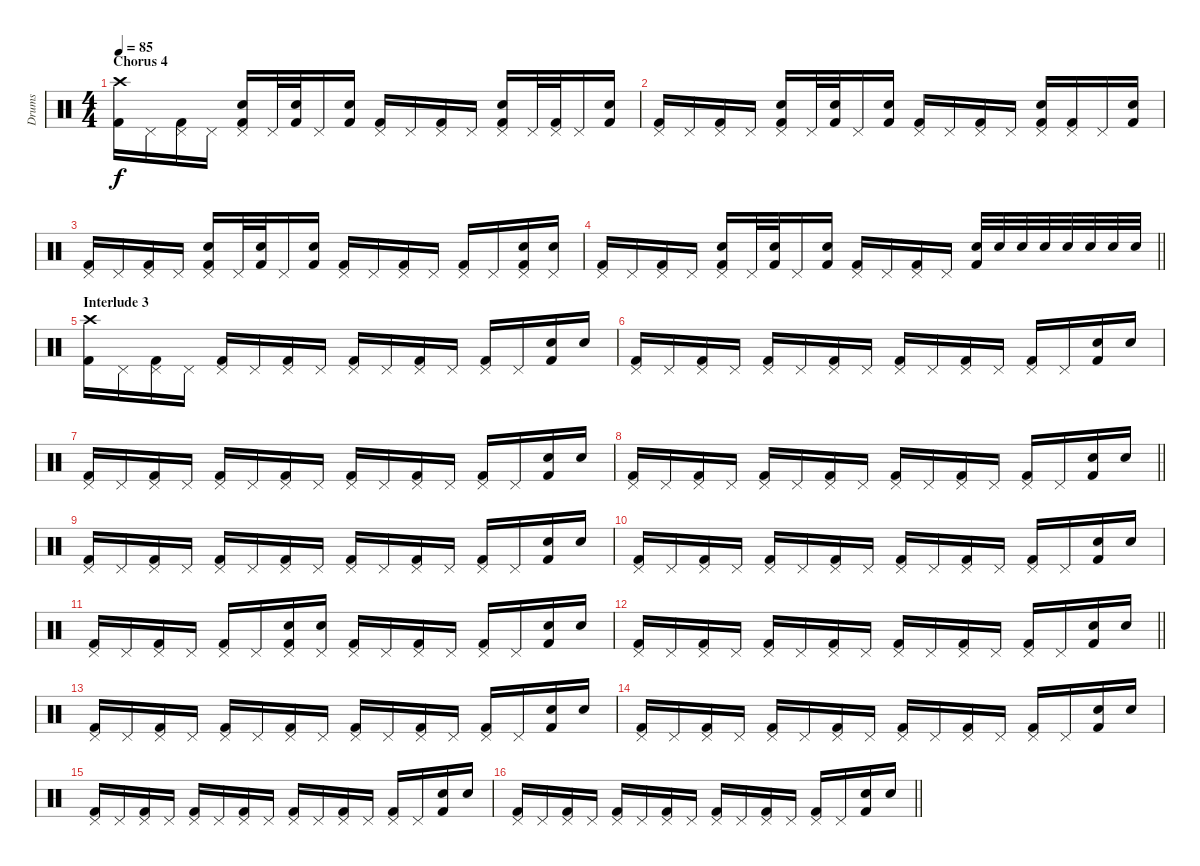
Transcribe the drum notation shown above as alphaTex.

\track ("Drums" "Drums") {instrument percussion}
\staff {score}
\articulation defaults
\ts (4 4)
\section ("" "Chorus 4")
\tempo 85
\clef neutral
\ks c
("Kick (hit) 2" "Crash high (hit)").16{dy f} "Pedal Hi-Hat (hit)".16 ("Kick (hit) 2" "Pedal Hi-Hat (hit)").16 "Pedal Hi-Hat (hit)".16 ("Kick (hit) 2" "Snare (hit) 2" "Pedal Hi-Hat (hit)").16 "Pedal Hi-Hat (hit)".32 ("Kick (hit) 2" "Snare (hit) 2").32 "Pedal Hi-Hat (hit)".16 ("Kick (hit) 2" "Snare (hit) 2").16 ("Kick (hit) 2" "Pedal Hi-Hat (hit)").16 "Pedal Hi-Hat (hit)".16 ("Kick (hit) 2" "Pedal Hi-Hat (hit)").16 "Pedal Hi-Hat (hit)".16 ("Kick (hit) 2" "Snare (hit) 2" "Pedal Hi-Hat (hit)").16 "Pedal Hi-Hat (hit)".32 ("Kick (hit) 2" "Pedal Hi-Hat (hit)").32 "Pedal Hi-Hat (hit)".16 ("Kick (hit) 2" "Snare (hit) 2").16 |
("Kick (hit) 2" "Pedal Hi-Hat (hit)").16 "Pedal Hi-Hat (hit)".16 ("Kick (hit) 2" "Pedal Hi-Hat (hit)").16 "Pedal Hi-Hat (hit)".16 ("Kick (hit) 2" "Snare (hit) 2" "Pedal Hi-Hat (hit)").16 "Pedal Hi-Hat (hit)".32 ("Kick (hit) 2" "Snare (hit) 2").32 "Pedal Hi-Hat (hit)".16 ("Kick (hit) 2" "Snare (hit) 2").16 ("Kick (hit) 2" "Pedal Hi-Hat (hit)").16 "Pedal Hi-Hat (hit)".16 ("Kick (hit) 2" "Pedal Hi-Hat (hit)").16 "Pedal Hi-Hat (hit)".16 ("Kick (hit) 2" "Snare (hit) 2" "Pedal Hi-Hat (hit)").16 ("Kick (hit) 2" "Pedal Hi-Hat (hit)").16 "Pedal Hi-Hat (hit)".16 ("Kick (hit) 2" "Snare (hit) 2").16 |
("Kick (hit) 2" "Pedal Hi-Hat (hit)").16 "Pedal Hi-Hat (hit)".16 ("Kick (hit) 2" "Pedal Hi-Hat (hit)").16 "Pedal Hi-Hat (hit)".16 ("Kick (hit) 2" "Snare (hit) 2" "Pedal Hi-Hat (hit)").16 "Pedal Hi-Hat (hit)".32 ("Kick (hit) 2" "Snare (hit) 2").32 "Pedal Hi-Hat (hit)".16 ("Kick (hit) 2" "Snare (hit) 2").16 ("Kick (hit) 2" "Pedal Hi-Hat (hit)").16 "Pedal Hi-Hat (hit)".16 ("Kick (hit) 2" "Pedal Hi-Hat (hit)").16 "Pedal Hi-Hat (hit)".16 ("Kick (hit) 2" "Pedal Hi-Hat (hit)").16 "Pedal Hi-Hat (hit)".16 ("Kick (hit) 2" "Snare (hit) 2" "Pedal Hi-Hat (hit)").16 ("Snare (hit) 2" "Pedal Hi-Hat (hit)").16 |
\barLineRight lightlight
("Kick (hit) 2" "Pedal Hi-Hat (hit)").16 "Pedal Hi-Hat (hit)".16 ("Kick (hit) 2" "Pedal Hi-Hat (hit)").16 "Pedal Hi-Hat (hit)".16 ("Kick (hit) 2" "Snare (hit) 2" "Pedal Hi-Hat (hit)").16 "Pedal Hi-Hat (hit)".32 ("Kick (hit) 2" "Snare (hit) 2").32 "Pedal Hi-Hat (hit)".16 ("Kick (hit) 2" "Snare (hit) 2").16 ("Kick (hit) 2" "Pedal Hi-Hat (hit)").16 "Pedal Hi-Hat (hit)".16 ("Kick (hit) 2" "Pedal Hi-Hat (hit)").16 "Pedal Hi-Hat (hit)".16 ("Kick (hit) 2" "Snare (hit) 2").32 "Snare (hit) 2".32 "Snare (hit) 2".32 "Snare (hit) 2".32 "Snare (hit) 2".32 "Snare (hit) 2".32 "Snare (hit) 2".32 "Snare (hit) 2".32 |
\section ("" "Interlude 3")
("Kick (hit) 2" "Crash high (hit)").16 "Pedal Hi-Hat (hit)".16 ("Kick (hit) 2" "Pedal Hi-Hat (hit)").16 "Pedal Hi-Hat (hit)".16 ("Kick (hit) 2" "Pedal Hi-Hat (hit)").16 "Pedal Hi-Hat (hit)".16 ("Kick (hit) 2" "Pedal Hi-Hat (hit)").16 "Pedal Hi-Hat (hit)".16 ("Kick (hit) 2" "Pedal Hi-Hat (hit)").16 "Pedal Hi-Hat (hit)".16 ("Kick (hit) 2" "Pedal Hi-Hat (hit)").16 "Pedal Hi-Hat (hit)".16 ("Kick (hit) 2" "Pedal Hi-Hat (hit)").16 "Pedal Hi-Hat (hit)".16 ("Kick (hit) 2" "Snare (hit) 2").16 "Snare (hit) 2".16 |
("Kick (hit) 2" "Pedal Hi-Hat (hit)").16 "Pedal Hi-Hat (hit)".16 ("Kick (hit) 2" "Pedal Hi-Hat (hit)").16 "Pedal Hi-Hat (hit)".16 ("Kick (hit) 2" "Pedal Hi-Hat (hit)").16 "Pedal Hi-Hat (hit)".16 ("Kick (hit) 2" "Pedal Hi-Hat (hit)").16 "Pedal Hi-Hat (hit)".16 ("Kick (hit) 2" "Pedal Hi-Hat (hit)").16 "Pedal Hi-Hat (hit)".16 ("Kick (hit) 2" "Pedal Hi-Hat (hit)").16 "Pedal Hi-Hat (hit)".16 ("Kick (hit) 2" "Pedal Hi-Hat (hit)").16 "Pedal Hi-Hat (hit)".16 ("Kick (hit) 2" "Snare (hit) 2").16 "Snare (hit) 2".16 |
("Kick (hit) 2" "Pedal Hi-Hat (hit)").16 "Pedal Hi-Hat (hit)".16 ("Kick (hit) 2" "Pedal Hi-Hat (hit)").16 "Pedal Hi-Hat (hit)".16 ("Kick (hit) 2" "Pedal Hi-Hat (hit)").16 "Pedal Hi-Hat (hit)".16 ("Kick (hit) 2" "Pedal Hi-Hat (hit)").16 "Pedal Hi-Hat (hit)".16 ("Kick (hit) 2" "Pedal Hi-Hat (hit)").16 "Pedal Hi-Hat (hit)".16 ("Kick (hit) 2" "Pedal Hi-Hat (hit)").16 "Pedal Hi-Hat (hit)".16 ("Kick (hit) 2" "Pedal Hi-Hat (hit)").16 "Pedal Hi-Hat (hit)".16 ("Kick (hit) 2" "Snare (hit) 2").16 "Snare (hit) 2".16 |
\barLineRight lightlight
("Kick (hit) 2" "Pedal Hi-Hat (hit)").16 "Pedal Hi-Hat (hit)".16 ("Kick (hit) 2" "Pedal Hi-Hat (hit)").16 "Pedal Hi-Hat (hit)".16 ("Kick (hit) 2" "Pedal Hi-Hat (hit)").16 "Pedal Hi-Hat (hit)".16 ("Kick (hit) 2" "Pedal Hi-Hat (hit)").16 "Pedal Hi-Hat (hit)".16 ("Kick (hit) 2" "Pedal Hi-Hat (hit)").16 "Pedal Hi-Hat (hit)".16 ("Kick (hit) 2" "Pedal Hi-Hat (hit)").16 "Pedal Hi-Hat (hit)".16 ("Kick (hit) 2" "Pedal Hi-Hat (hit)").16 "Pedal Hi-Hat (hit)".16 ("Kick (hit) 2" "Snare (hit) 2").16 "Snare (hit) 2".16 |
("Kick (hit) 2" "Pedal Hi-Hat (hit)").16 "Pedal Hi-Hat (hit)".16 ("Kick (hit) 2" "Pedal Hi-Hat (hit)").16 "Pedal Hi-Hat (hit)".16 ("Kick (hit) 2" "Pedal Hi-Hat (hit)").16 "Pedal Hi-Hat (hit)".16 ("Kick (hit) 2" "Pedal Hi-Hat (hit)").16 "Pedal Hi-Hat (hit)".16 ("Kick (hit) 2" "Pedal Hi-Hat (hit)").16 "Pedal Hi-Hat (hit)".16 ("Kick (hit) 2" "Pedal Hi-Hat (hit)").16 "Pedal Hi-Hat (hit)".16 ("Kick (hit) 2" "Pedal Hi-Hat (hit)").16 "Pedal Hi-Hat (hit)".16 ("Kick (hit) 2" "Snare (hit) 2").16 "Snare (hit) 2".16 |
("Kick (hit) 2" "Pedal Hi-Hat (hit)").16 "Pedal Hi-Hat (hit)".16 ("Kick (hit) 2" "Pedal Hi-Hat (hit)").16 "Pedal Hi-Hat (hit)".16 ("Kick (hit) 2" "Pedal Hi-Hat (hit)").16 "Pedal Hi-Hat (hit)".16 ("Kick (hit) 2" "Pedal Hi-Hat (hit)").16 "Pedal Hi-Hat (hit)".16 ("Kick (hit) 2" "Pedal Hi-Hat (hit)").16 "Pedal Hi-Hat (hit)".16 ("Kick (hit) 2" "Pedal Hi-Hat (hit)").16 "Pedal Hi-Hat (hit)".16 ("Kick (hit) 2" "Pedal Hi-Hat (hit)").16 "Pedal Hi-Hat (hit)".16 ("Kick (hit) 2" "Snare (hit) 2").16 "Snare (hit) 2".16 |
("Kick (hit) 2" "Pedal Hi-Hat (hit)").16 "Pedal Hi-Hat (hit)".16 ("Kick (hit) 2" "Pedal Hi-Hat (hit)").16 "Pedal Hi-Hat (hit)".16 ("Kick (hit) 2" "Pedal Hi-Hat (hit)").16 "Pedal Hi-Hat (hit)".16 ("Kick (hit) 2" "Snare (hit) 2" "Pedal Hi-Hat (hit)").16 ("Snare (hit) 2" "Pedal Hi-Hat (hit)").16 ("Kick (hit) 2" "Pedal Hi-Hat (hit)").16 "Pedal Hi-Hat (hit)".16 ("Kick (hit) 2" "Pedal Hi-Hat (hit)").16 "Pedal Hi-Hat (hit)".16 ("Kick (hit) 2" "Pedal Hi-Hat (hit)").16 "Pedal Hi-Hat (hit)".16 ("Kick (hit) 2" "Snare (hit) 2").16 "Snare (hit) 2".16 |
\barLineRight lightlight
("Kick (hit) 2" "Pedal Hi-Hat (hit)").16 "Pedal Hi-Hat (hit)".16 ("Kick (hit) 2" "Pedal Hi-Hat (hit)").16 "Pedal Hi-Hat (hit)".16 ("Kick (hit) 2" "Pedal Hi-Hat (hit)").16 "Pedal Hi-Hat (hit)".16 ("Kick (hit) 2" "Pedal Hi-Hat (hit)").16 "Pedal Hi-Hat (hit)".16 ("Kick (hit) 2" "Pedal Hi-Hat (hit)").16 "Pedal Hi-Hat (hit)".16 ("Kick (hit) 2" "Pedal Hi-Hat (hit)").16 "Pedal Hi-Hat (hit)".16 ("Kick (hit) 2" "Pedal Hi-Hat (hit)").16 "Pedal Hi-Hat (hit)".16 ("Kick (hit) 2" "Snare (hit) 2").16 "Snare (hit) 2".16 |
("Kick (hit) 2" "Pedal Hi-Hat (hit)").16 "Pedal Hi-Hat (hit)".16 ("Kick (hit) 2" "Pedal Hi-Hat (hit)").16 "Pedal Hi-Hat (hit)".16 ("Kick (hit) 2" "Pedal Hi-Hat (hit)").16 "Pedal Hi-Hat (hit)".16 ("Kick (hit) 2" "Pedal Hi-Hat (hit)").16 "Pedal Hi-Hat (hit)".16 ("Kick (hit) 2" "Pedal Hi-Hat (hit)").16 "Pedal Hi-Hat (hit)".16 ("Kick (hit) 2" "Pedal Hi-Hat (hit)").16 "Pedal Hi-Hat (hit)".16 ("Kick (hit) 2" "Pedal Hi-Hat (hit)").16 "Pedal Hi-Hat (hit)".16 ("Kick (hit) 2" "Snare (hit) 2").16 "Snare (hit) 2".16 |
("Kick (hit) 2" "Pedal Hi-Hat (hit)").16 "Pedal Hi-Hat (hit)".16 ("Kick (hit) 2" "Pedal Hi-Hat (hit)").16 "Pedal Hi-Hat (hit)".16 ("Kick (hit) 2" "Pedal Hi-Hat (hit)").16 "Pedal Hi-Hat (hit)".16 ("Kick (hit) 2" "Pedal Hi-Hat (hit)").16 "Pedal Hi-Hat (hit)".16 ("Kick (hit) 2" "Pedal Hi-Hat (hit)").16 "Pedal Hi-Hat (hit)".16 ("Kick (hit) 2" "Pedal Hi-Hat (hit)").16 "Pedal Hi-Hat (hit)".16 ("Kick (hit) 2" "Pedal Hi-Hat (hit)").16 "Pedal Hi-Hat (hit)".16 ("Kick (hit) 2" "Snare (hit) 2").16 "Snare (hit) 2".16 |
("Kick (hit) 2" "Pedal Hi-Hat (hit)").16 "Pedal Hi-Hat (hit)".16 ("Kick (hit) 2" "Pedal Hi-Hat (hit)").16 "Pedal Hi-Hat (hit)".16 ("Kick (hit) 2" "Pedal Hi-Hat (hit)").16 "Pedal Hi-Hat (hit)".16 ("Kick (hit) 2" "Pedal Hi-Hat (hit)").16 "Pedal Hi-Hat (hit)".16 ("Kick (hit) 2" "Pedal Hi-Hat (hit)").16 "Pedal Hi-Hat (hit)".16 ("Kick (hit) 2" "Pedal Hi-Hat (hit)").16 "Pedal Hi-Hat (hit)".16 ("Kick (hit) 2" "Pedal Hi-Hat (hit)").16 "Pedal Hi-Hat (hit)".16 ("Kick (hit) 2" "Snare (hit) 2").16 "Snare (hit) 2".16 |
\barLineRight lightlight
("Kick (hit) 2" "Pedal Hi-Hat (hit)").16 "Pedal Hi-Hat (hit)".16 ("Kick (hit) 2" "Pedal Hi-Hat (hit)").16 "Pedal Hi-Hat (hit)".16 ("Kick (hit) 2" "Pedal Hi-Hat (hit)").16 "Pedal Hi-Hat (hit)".16 ("Kick (hit) 2" "Pedal Hi-Hat (hit)").16 "Pedal Hi-Hat (hit)".16 ("Kick (hit) 2" "Pedal Hi-Hat (hit)").16 "Pedal Hi-Hat (hit)".16 ("Kick (hit) 2" "Pedal Hi-Hat (hit)").16 "Pedal Hi-Hat (hit)".16 ("Kick (hit) 2" "Pedal Hi-Hat (hit)").16 "Pedal Hi-Hat (hit)".16 ("Kick (hit) 2" "Snare (hit) 2").16 "Snare (hit) 2".16
